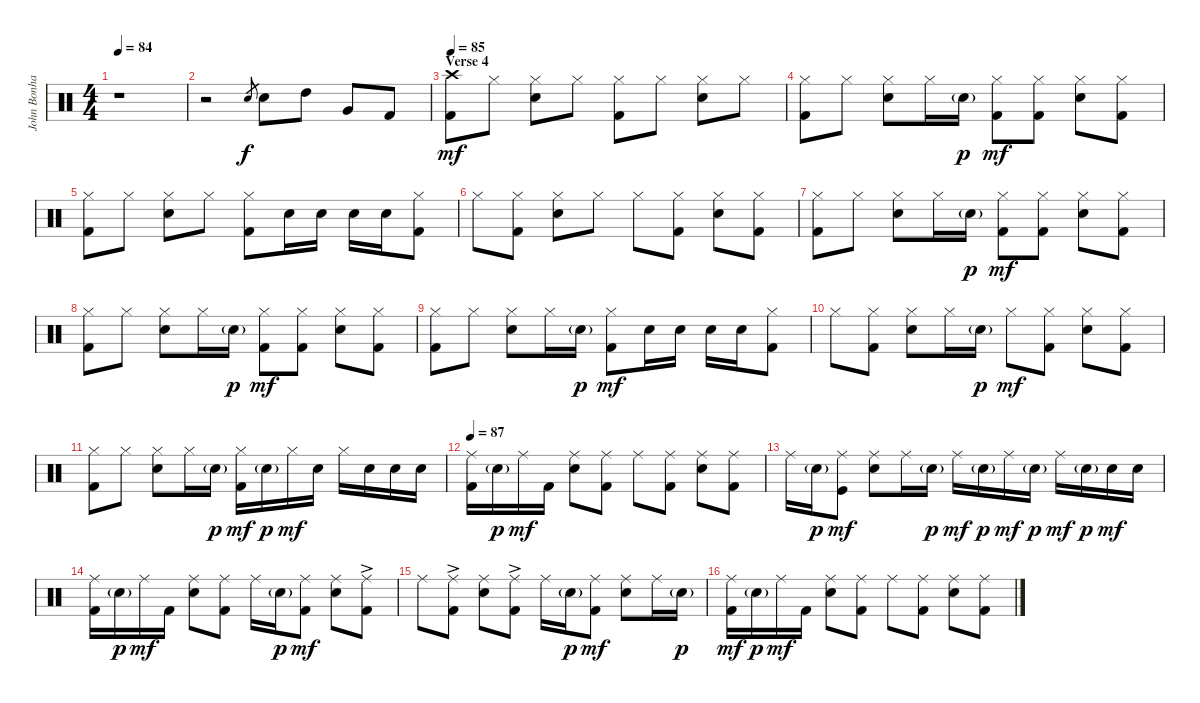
\track ("John Bonham - Drums" "John Bonha") {instrument percussion}
\staff {score}
\articulation defaults
\ts (4 4)
\tempo 84
\clef neutral
\ks c
r.1{dy f} |
r.2 "Snare (hit) 2".8{gr} "Snare (hit) 2".8 "High Tom (hit)".8 "Very Low Tom (hit)".8 "Kick (hit) 2".8 |
\section ("" "Verse 4")
\tempo 85
("Crash high (hit)" "Kick (hit) 2").8{dy mf} "Hi-Hat (closed)".8 ("Hi-Hat (closed)" "Snare (hit) 2").8 "Hi-Hat (closed)".8 ("Hi-Hat (closed)" "Kick (hit) 2").8 "Hi-Hat (closed)".8 ("Hi-Hat (closed)" "Snare (hit) 2").8 "Hi-Hat (closed)".8 |
("Hi-Hat (closed)" "Kick (hit) 2").8 "Hi-Hat (closed)".8 ("Hi-Hat (closed)" "Snare (hit) 2").8 "Hi-Hat (closed)".16 "Snare (hit) 2"{g}.16{dy p} ("Hi-Hat (closed)" "Kick (hit) 2").8{dy mf} ("Hi-Hat (closed)" "Kick (hit) 2").8 ("Hi-Hat (closed)" "Snare (hit) 2").8 ("Hi-Hat (closed)" "Kick (hit) 2").8 |
("Hi-Hat (closed)" "Kick (hit) 2").8 "Hi-Hat (closed)".8 ("Hi-Hat (closed)" "Snare (hit) 2").8 "Hi-Hat (closed)".8 ("Hi-Hat (closed)" "Kick (hit) 2").8 "Snare (hit) 2".16 "Snare (hit) 2".16 "Snare (hit) 2".16 "Snare (hit) 2".16 ("Hi-Hat (closed)" "Kick (hit) 2").8 |
"Hi-Hat (closed)".8 ("Hi-Hat (closed)" "Kick (hit) 2").8 ("Hi-Hat (closed)" "Snare (hit) 2").8 "Hi-Hat (closed)".8 "Hi-Hat (closed)".8 ("Hi-Hat (closed)" "Kick (hit) 2").8 ("Hi-Hat (closed)" "Snare (hit) 2").8 ("Hi-Hat (closed)" "Kick (hit) 2").8 |
("Hi-Hat (closed)" "Kick (hit) 2").8 "Hi-Hat (closed)".8 ("Hi-Hat (closed)" "Snare (hit) 2").8 "Hi-Hat (closed)".16 "Snare (hit) 2"{g}.16{dy p} ("Hi-Hat (closed)" "Kick (hit) 2").8{dy mf} ("Hi-Hat (closed)" "Kick (hit) 2").8 ("Hi-Hat (closed)" "Snare (hit) 2").8 ("Hi-Hat (closed)" "Kick (hit) 2").8 |
("Hi-Hat (closed)" "Kick (hit) 2").8 "Hi-Hat (closed)".8 ("Hi-Hat (closed)" "Snare (hit) 2").8 "Hi-Hat (closed)".16 "Snare (hit) 2"{g}.16{dy p} ("Hi-Hat (closed)" "Kick (hit) 2").8{dy mf} ("Hi-Hat (closed)" "Kick (hit) 2").8 ("Hi-Hat (closed)" "Snare (hit) 2").8 ("Hi-Hat (closed)" "Kick (hit) 2").8 |
("Hi-Hat (closed)" "Kick (hit) 2").8 "Hi-Hat (closed)".8 ("Hi-Hat (closed)" "Snare (hit) 2").8 "Hi-Hat (closed)".16 "Snare (hit) 2"{g}.16{dy p} ("Hi-Hat (closed)" "Kick (hit) 2").8{dy mf} "Snare (hit) 2".16 "Snare (hit) 2".16 "Snare (hit) 2".16 "Snare (hit) 2".16 ("Hi-Hat (closed)" "Kick (hit) 2").8 |
"Hi-Hat (closed)".8 ("Hi-Hat (closed)" "Kick (hit) 2").8 ("Hi-Hat (closed)" "Snare (hit) 2").8 "Hi-Hat (closed)".16 "Snare (hit) 2"{g}.16{dy p} "Hi-Hat (closed)".8{dy mf} ("Hi-Hat (closed)" "Kick (hit) 2").8 ("Hi-Hat (closed)" "Snare (hit) 2").8 ("Hi-Hat (closed)" "Kick (hit) 2").8 |
("Hi-Hat (closed)" "Kick (hit) 2").8 "Hi-Hat (closed)".8 ("Hi-Hat (closed)" "Snare (hit) 2").8 "Hi-Hat (closed)".16 "Snare (hit) 2"{g}.16{dy p} ("Hi-Hat (closed)" "Kick (hit) 2").16{dy mf} "Snare (hit) 2"{g}.16{dy p} "Hi-Hat (closed)".16{dy mf} "Snare (hit) 2".16 "Hi-Hat (closed)".16 "Snare (hit) 2".16 "Snare (hit) 2".16 "Snare (hit) 2".16 |
\tempo 87
("Ride (middle)" "Kick (hit) 2").16 "Snare (hit) 2"{g}.16{dy p} "Ride (middle)".16{dy mf} "Kick (hit) 2".16 ("Ride (middle)" "Snare (hit) 2").8 ("Ride (middle)" "Kick (hit) 2").8 "Ride (middle)".8 ("Ride (middle)" "Kick (hit) 2").8 ("Ride (middle)" "Snare (hit) 2").8 ("Ride (middle)" "Kick (hit) 2").8 |
"Ride (middle)".16 "Snare (hit) 2"{g}.16{dy p} ("Ride (middle)" "Kick (hit)").8{dy mf} ("Ride (middle)" "Snare (hit) 2").8 "Ride (middle)".16 "Snare (hit) 2"{g}.16{dy p} "Ride (middle)".16{dy mf} "Snare (hit) 2"{g}.16{dy p} "Ride (middle)".16{dy mf} "Snare (hit) 2"{g}.16{dy p} "Ride (middle)".16{dy mf} "Snare (hit) 2"{g}.16{dy p} "Snare (hit) 2".16{dy mf} "Snare (hit) 2".16 |
("Ride (middle)" "Kick (hit) 2").16 "Snare (hit) 2"{g}.16{dy p} "Ride (middle)".16{dy mf} "Kick (hit) 2".16 ("Ride (middle)" "Snare (hit) 2").8 ("Ride (middle)" "Kick (hit) 2").8 "Ride (middle)".16 "Snare (hit) 2"{g}.16{dy p} ("Ride (middle)" "Kick (hit) 2").8{dy mf} ("Ride (middle)" "Snare (hit) 2").8 ("Ride (middle)" "Kick (hit) 2"{ac}).8 |
"Ride (middle)".8 ("Ride (middle)" "Kick (hit) 2"{ac}).8 ("Ride (middle)" "Snare (hit) 2").8 ("Ride (middle)" "Kick (hit) 2"{ac}).8 "Ride (middle)".16 "Snare (hit) 2"{g}.16{dy p} ("Ride (middle)" "Kick (hit) 2").8{dy mf} ("Ride (middle)" "Snare (hit) 2").8 "Ride (middle)".16 "Snare (hit) 2"{g}.16{dy p} |
("Ride (middle)" "Kick (hit) 2").16{dy mf} "Snare (hit) 2"{g}.16{dy p} "Ride (middle)".16{dy mf} "Kick (hit) 2".16 ("Ride (middle)" "Snare (hit) 2").8 ("Ride (middle)" "Kick (hit) 2").8 "Ride (middle)".8 ("Ride (middle)" "Kick (hit) 2").8 ("Ride (middle)" "Snare (hit) 2").8 ("Ride (middle)" "Kick (hit) 2").8
